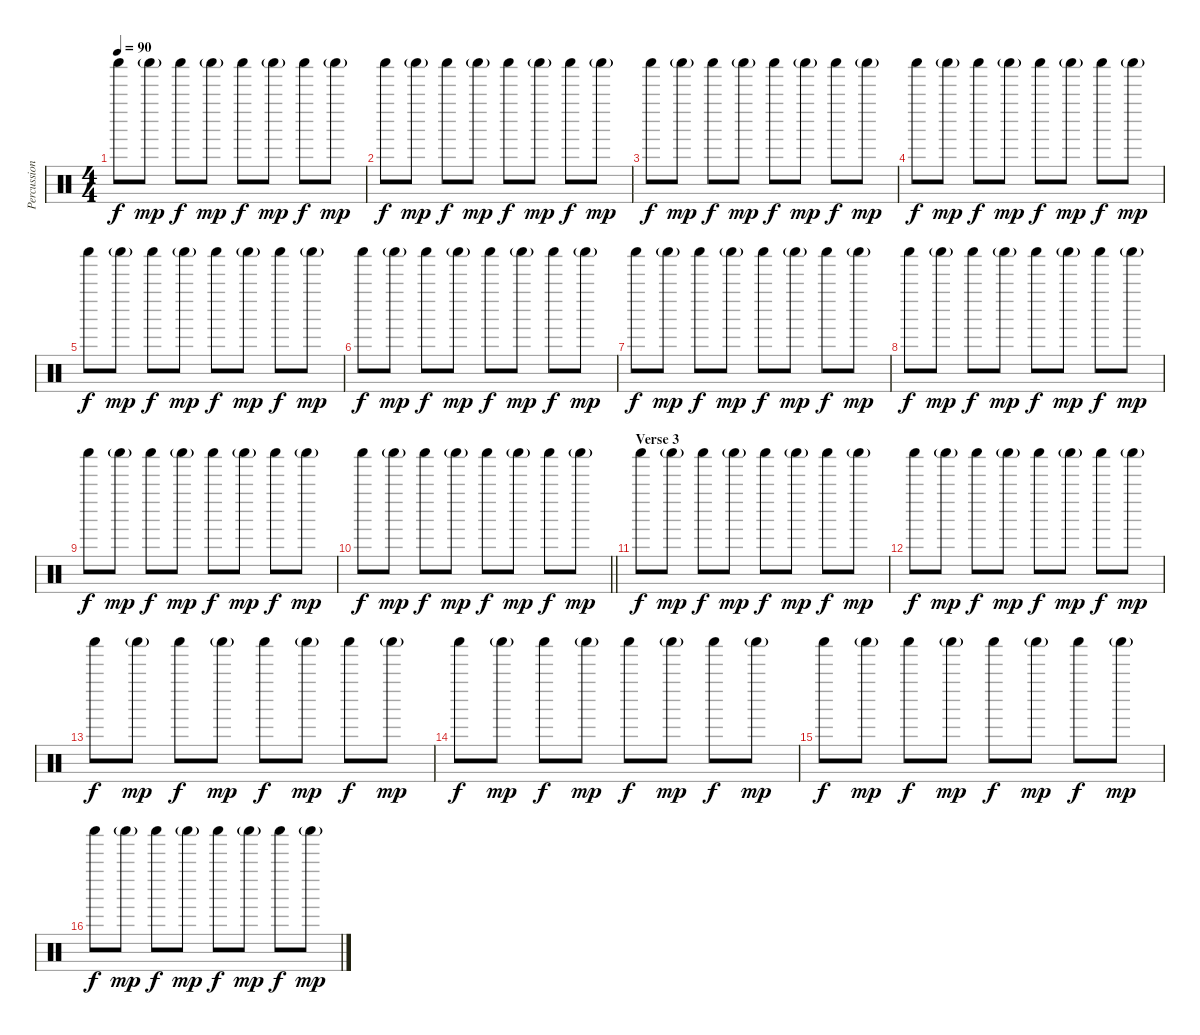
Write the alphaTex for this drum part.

\track ("Percussion 2" "Percussion") {instrument percussion}
\staff {score}
\articulation defaults
\ts (4 4)
\tempo 90
\clef neutral
\ks c "Shaker (hit)".8{dy f} "Shaker (hit)"{g}.8{dy mp} "Shaker (hit)".8{dy f} "Shaker (hit)"{g}.8{dy mp} "Shaker (hit)".8{dy f} "Shaker (hit)"{g}.8{dy mp} "Shaker (hit)".8{dy f} "Shaker (hit)"{g}.8{dy mp}
|
"Shaker (hit)".8{dy f} "Shaker (hit)"{g}.8{dy mp} "Shaker (hit)".8{dy f} "Shaker (hit)"{g}.8{dy mp} "Shaker (hit)".8{dy f} "Shaker (hit)"{g}.8{dy mp} "Shaker (hit)".8{dy f} "Shaker (hit)"{g}.8{dy mp} |
"Shaker (hit)".8{dy f} "Shaker (hit)"{g}.8{dy mp} "Shaker (hit)".8{dy f} "Shaker (hit)"{g}.8{dy mp} "Shaker (hit)".8{dy f} "Shaker (hit)"{g}.8{dy mp} "Shaker (hit)".8{dy f} "Shaker (hit)"{g}.8{dy mp} |
"Shaker (hit)".8{dy f} "Shaker (hit)"{g}.8{dy mp} "Shaker (hit)".8{dy f} "Shaker (hit)"{g}.8{dy mp} "Shaker (hit)".8{dy f} "Shaker (hit)"{g}.8{dy mp} "Shaker (hit)".8{dy f} "Shaker (hit)"{g}.8{dy mp} |
"Shaker (hit)".8{dy f} "Shaker (hit)"{g}.8{dy mp} "Shaker (hit)".8{dy f} "Shaker (hit)"{g}.8{dy mp} "Shaker (hit)".8{dy f} "Shaker (hit)"{g}.8{dy mp} "Shaker (hit)".8{dy f} "Shaker (hit)"{g}.8{dy mp} |
"Shaker (hit)".8{dy f} "Shaker (hit)"{g}.8{dy mp} "Shaker (hit)".8{dy f} "Shaker (hit)"{g}.8{dy mp} "Shaker (hit)".8{dy f} "Shaker (hit)"{g}.8{dy mp} "Shaker (hit)".8{dy f} "Shaker (hit)"{g}.8{dy mp} |
"Shaker (hit)".8{dy f} "Shaker (hit)"{g}.8{dy mp} "Shaker (hit)".8{dy f} "Shaker (hit)"{g}.8{dy mp} "Shaker (hit)".8{dy f} "Shaker (hit)"{g}.8{dy mp} "Shaker (hit)".8{dy f} "Shaker (hit)"{g}.8{dy mp} |
"Shaker (hit)".8{dy f} "Shaker (hit)"{g}.8{dy mp} "Shaker (hit)".8{dy f} "Shaker (hit)"{g}.8{dy mp} "Shaker (hit)".8{dy f} "Shaker (hit)"{g}.8{dy mp} "Shaker (hit)".8{dy f} "Shaker (hit)"{g}.8{dy mp} |
"Shaker (hit)".8{dy f} "Shaker (hit)"{g}.8{dy mp} "Shaker (hit)".8{dy f} "Shaker (hit)"{g}.8{dy mp} "Shaker (hit)".8{dy f} "Shaker (hit)"{g}.8{dy mp} "Shaker (hit)".8{dy f} "Shaker (hit)"{g}.8{dy mp} |
\barLineRight lightlight "Shaker (hit)".8{dy f} "Shaker (hit)"{g}.8{dy mp} "Shaker (hit)".8{dy f} "Shaker (hit)"{g}.8{dy mp} "Shaker (hit)".8{dy f} "Shaker (hit)"{g}.8{dy mp} "Shaker (hit)".8{dy f} "Shaker (hit)"{g}.8{dy mp}
|
\section ("" "Verse 3")
"Shaker (hit)".8{dy f} "Shaker (hit)"{g}.8{dy mp} "Shaker (hit)".8{dy f} "Shaker (hit)"{g}.8{dy mp} "Shaker (hit)".8{dy f} "Shaker (hit)"{g}.8{dy mp} "Shaker (hit)".8{dy f} "Shaker (hit)"{g}.8{dy mp} |
"Shaker (hit)".8{dy f} "Shaker (hit)"{g}.8{dy mp} "Shaker (hit)".8{dy f} "Shaker (hit)"{g}.8{dy mp} "Shaker (hit)".8{dy f} "Shaker (hit)"{g}.8{dy mp} "Shaker (hit)".8{dy f} "Shaker (hit)"{g}.8{dy mp} |
"Shaker (hit)".8{dy f} "Shaker (hit)"{g}.8{dy mp} "Shaker (hit)".8{dy f} "Shaker (hit)"{g}.8{dy mp} "Shaker (hit)".8{dy f} "Shaker (hit)"{g}.8{dy mp} "Shaker (hit)".8{dy f} "Shaker (hit)"{g}.8{dy mp} |
"Shaker (hit)".8{dy f} "Shaker (hit)"{g}.8{dy mp} "Shaker (hit)".8{dy f} "Shaker (hit)"{g}.8{dy mp} "Shaker (hit)".8{dy f} "Shaker (hit)"{g}.8{dy mp} "Shaker (hit)".8{dy f} "Shaker (hit)"{g}.8{dy mp} |
"Shaker (hit)".8{dy f} "Shaker (hit)"{g}.8{dy mp} "Shaker (hit)".8{dy f} "Shaker (hit)"{g}.8{dy mp} "Shaker (hit)".8{dy f} "Shaker (hit)"{g}.8{dy mp} "Shaker (hit)".8{dy f} "Shaker (hit)"{g}.8{dy mp} |
"Shaker (hit)".8{dy f} "Shaker (hit)"{g}.8{dy mp} "Shaker (hit)".8{dy f} "Shaker (hit)"{g}.8{dy mp} "Shaker (hit)".8{dy f} "Shaker (hit)"{g}.8{dy mp} "Shaker (hit)".8{dy f} "Shaker (hit)"{g}.8{dy mp}
